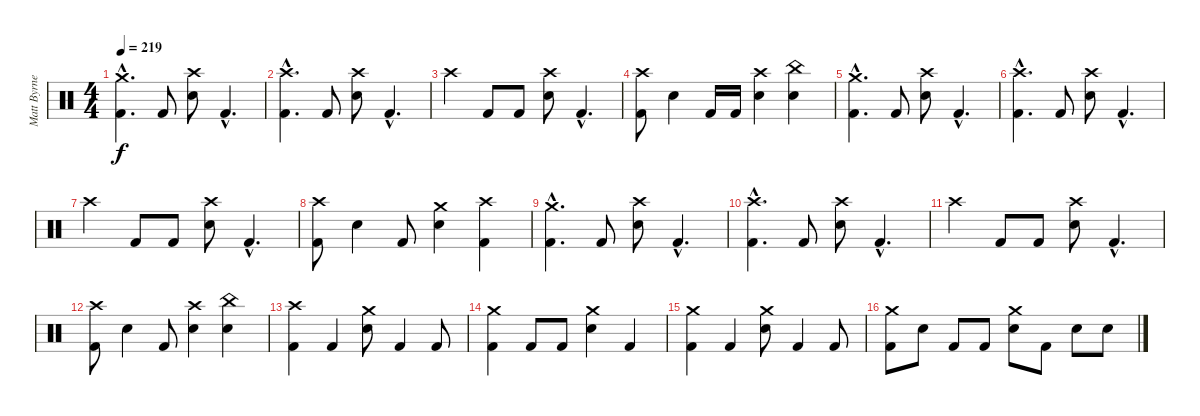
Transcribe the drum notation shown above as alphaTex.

\track ("Matt Byrne (Drums)" "Matt Byrne") {instrument percussion}
\staff {score}
\articulation defaults
\ts (4 4)
\tempo 219
\clef neutral
\ks c
("Crash medium (hit)"{hac} "Kick (hit) 2"{hac}).4{d dy f} "Kick (hit) 2".8 ("Crash high (hit)" "Snare (hit) 2").8 "Kick (hit) 2"{hac}.4{d} |
("Crash high (hit)"{hac} "Kick (hit) 2"{hac}).4{d} "Kick (hit) 2".8 ("Crash high (hit)" "Snare (hit) 2").8 "Kick (hit) 2"{hac}.4{d} |
"Crash high (hit)".4 "Kick (hit) 2".8 "Kick (hit) 2".8 ("Crash high (hit)" "Snare (hit) 2").8 "Kick (hit) 2"{hac}.4{d} |
("Crash high (hit)" "Kick (hit) 2").8 "Snare (hit) 2".4 "Kick (hit) 2".16 "Kick (hit) 2".16 ("Crash high (hit)" "Snare (hit) 2").4 ("China (hit)" "Snare (hit) 2").4 |
("Crash medium (hit)"{hac} "Kick (hit) 2"{hac}).4{d} "Kick (hit) 2".8 ("Crash high (hit)" "Snare (hit) 2").8 "Kick (hit) 2"{hac}.4{d} |
("Crash high (hit)"{hac} "Kick (hit) 2"{hac}).4{d} "Kick (hit) 2".8 ("Crash high (hit)" "Snare (hit) 2").8 "Kick (hit) 2"{hac}.4{d} |
"Crash high (hit)".4 "Kick (hit) 2".8 "Kick (hit) 2".8 ("Crash high (hit)" "Snare (hit) 2").8 "Kick (hit) 2"{hac}.4{d} |
("Crash high (hit)" "Kick (hit) 2").8 "Snare (hit) 2".4 "Kick (hit) 2".8 ("Crash medium (hit)" "Snare (hit) 2").4 ("Crash high (hit)" "Kick (hit) 2").4 |
("Crash medium (hit)"{hac} "Kick (hit) 2"{hac}).4{d} "Kick (hit) 2".8 ("Crash high (hit)" "Snare (hit) 2").8 "Kick (hit) 2"{hac}.4{d} |
("Crash high (hit)"{hac} "Kick (hit) 2"{hac}).4{d} "Kick (hit) 2".8 ("Crash high (hit)" "Snare (hit) 2").8 "Kick (hit) 2"{hac}.4{d} |
"Crash high (hit)".4 "Kick (hit) 2".8 "Kick (hit) 2".8 ("Crash high (hit)" "Snare (hit) 2").8 "Kick (hit) 2"{hac}.4{d} |
("Crash high (hit)" "Kick (hit) 2").8 "Snare (hit) 2".4 "Kick (hit) 2".8 ("Crash high (hit)" "Snare (hit) 2").4 ("China (hit)" "Snare (hit) 2").4 |
("Crash high (hit)" "Kick (hit) 2").4 "Kick (hit) 2".4 ("Crash medium (hit)" "Snare (hit) 2").8 "Kick (hit) 2".4 "Kick (hit) 2".8 |
("Crash medium (hit)" "Kick (hit) 2").4 "Kick (hit) 2".8 "Kick (hit) 2".8 ("Crash medium (hit)" "Snare (hit) 2").4 "Kick (hit) 2".4 |
("Crash medium (hit)" "Kick (hit) 2").4 "Kick (hit) 2".4 ("Crash medium (hit)" "Snare (hit) 2").8 "Kick (hit) 2".4 "Kick (hit) 2".8 |
("Crash medium (hit)" "Kick (hit) 2").8 "Snare (hit) 2".8 "Kick (hit) 2".8 "Kick (hit) 2".8 ("Crash medium (hit)" "Snare (hit) 2").8 "Kick (hit) 2".8 "Snare (hit) 2".8 "Snare (hit) 2".8
